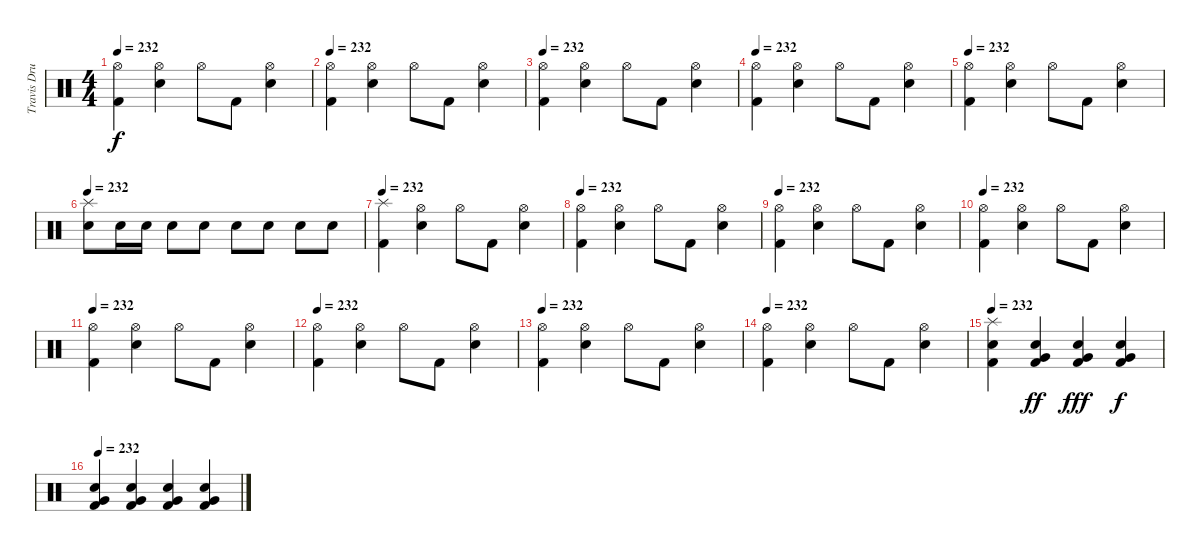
\track ("Travis Drums" "Travis Dru") {instrument percussion}
\staff {score}
\articulation defaults
\ts (4 4)
\tempo 232
\clef neutral
\ks c
("Hi-Hat (open)" "Kick (hit) 2").4{dy f} ("Hi-Hat (open)" "Electric Snare (hit)").4 "Hi-Hat (open)".8 "Kick (hit) 2".8 ("Hi-Hat (open)" "Electric Snare (hit)").4 |
\tempo 232
("Hi-Hat (open)" "Kick (hit) 2").4 ("Hi-Hat (open)" "Electric Snare (hit)").4 "Hi-Hat (open)".8 "Kick (hit) 2".8 ("Hi-Hat (open)" "Electric Snare (hit)").4 |
\tempo 232
("Hi-Hat (open)" "Kick (hit) 2").4 ("Hi-Hat (open)" "Electric Snare (hit)").4 "Hi-Hat (open)".8 "Kick (hit) 2".8 ("Hi-Hat (open)" "Electric Snare (hit)").4 |
\tempo 232
("Hi-Hat (open)" "Kick (hit) 2").4 ("Hi-Hat (open)" "Electric Snare (hit)").4 "Hi-Hat (open)".8 "Kick (hit) 2".8 ("Hi-Hat (open)" "Electric Snare (hit)").4 |
\tempo 232
("Hi-Hat (open)" "Kick (hit) 2").4 ("Hi-Hat (open)" "Electric Snare (hit)").4 "Hi-Hat (open)".8 "Kick (hit) 2".8 ("Hi-Hat (open)" "Electric Snare (hit)").4 |
\tempo 232
("Splash (hit)" "Electric Snare (hit)").8 "Electric Snare (hit)".16 "Electric Snare (hit)".16 "Electric Snare (hit)".8 "Electric Snare (hit)".8 "Electric Snare (hit)".8 "Electric Snare (hit)".8 "Electric Snare (hit)".8 "Electric Snare (hit)".8 |
\tempo 232
("Splash (hit)" "Kick (hit) 2").4 ("Hi-Hat (open)" "Electric Snare (hit)").4 "Hi-Hat (open)".8 "Kick (hit) 2".8 ("Hi-Hat (open)" "Electric Snare (hit)").4 |
\tempo 232
("Hi-Hat (open)" "Kick (hit) 2").4 ("Hi-Hat (open)" "Electric Snare (hit)").4 "Hi-Hat (open)".8 "Kick (hit) 2".8 ("Hi-Hat (open)" "Electric Snare (hit)").4 |
\tempo 232
("Hi-Hat (open)" "Kick (hit) 2").4 ("Hi-Hat (open)" "Electric Snare (hit)").4 "Hi-Hat (open)".8 "Kick (hit) 2".8 ("Hi-Hat (open)" "Electric Snare (hit)").4 |
\tempo 232
("Hi-Hat (open)" "Kick (hit) 2").4 ("Hi-Hat (open)" "Electric Snare (hit)").4 "Hi-Hat (open)".8 "Kick (hit) 2".8 ("Hi-Hat (open)" "Electric Snare (hit)").4 |
\tempo 232
("Hi-Hat (open)" "Kick (hit) 2").4 ("Hi-Hat (open)" "Electric Snare (hit)").4 "Hi-Hat (open)".8 "Kick (hit) 2".8 ("Hi-Hat (open)" "Electric Snare (hit)").4 |
\tempo 232
("Hi-Hat (open)" "Kick (hit) 2").4 ("Hi-Hat (open)" "Electric Snare (hit)").4 "Hi-Hat (open)".8 "Kick (hit) 2".8 ("Hi-Hat (open)" "Electric Snare (hit)").4 |
\tempo 232
("Hi-Hat (open)" "Kick (hit) 2").4 ("Hi-Hat (open)" "Electric Snare (hit)").4 "Hi-Hat (open)".8 "Kick (hit) 2".8 ("Hi-Hat (open)" "Electric Snare (hit)").4 |
\tempo 232
("Hi-Hat (open)" "Kick (hit) 2").4 ("Hi-Hat (open)" "Electric Snare (hit)").4 "Hi-Hat (open)".8 "Kick (hit) 2".8 ("Hi-Hat (open)" "Electric Snare (hit)").4 |
\tempo 232
("Splash (hit)" "Electric Snare (hit)" "Kick (hit) 2").4 ("Very Low Tom (hit)" "Electric Snare (hit)" "Kick (hit) 2").4{dy ff} ("Very Low Tom (hit)" "Electric Snare (hit)" "Kick (hit) 2").4{dy fff} ("Very Low Tom (hit)" "Electric Snare (hit)" "Kick (hit) 2").4{dy f} |
\tempo 232
("Very Low Tom (hit)" "Electric Snare (hit)" "Kick (hit) 2").4 ("Very Low Tom (hit)" "Electric Snare (hit)" "Kick (hit) 2").4 ("Very Low Tom (hit)" "Electric Snare (hit)" "Kick (hit) 2").4 ("Very Low Tom (hit)" "Electric Snare (hit)" "Kick (hit) 2").4
